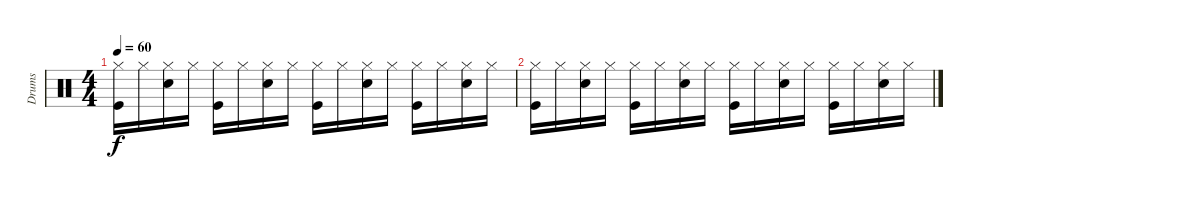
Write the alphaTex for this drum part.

\track ("Drums" "Drums") {instrument percussion}
\staff {score}
\articulation defaults
\ts (4 4)
\tempo 60
\clef neutral
\ks c
("Kick (hit)" "Hi-Hat (closed)").16{dy f} "Hi-Hat (closed)".16 ("Electric Snare (hit)" "Hi-Hat (closed)").16 "Hi-Hat (closed)".16 ("Kick (hit)" "Hi-Hat (closed)").16 "Hi-Hat (closed)".16 ("Electric Snare (hit)" "Hi-Hat (closed)").16 "Hi-Hat (closed)".16 ("Kick (hit)" "Hi-Hat (closed)").16 "Hi-Hat (closed)".16 ("Electric Snare (hit)" "Hi-Hat (closed)").16 "Hi-Hat (closed)".16 ("Kick (hit)" "Hi-Hat (closed)").16 "Hi-Hat (closed)".16 ("Electric Snare (hit)" "Hi-Hat (closed)").16 "Hi-Hat (closed)".16 |
("Kick (hit)" "Hi-Hat (closed)").16 "Hi-Hat (closed)".16 ("Electric Snare (hit)" "Hi-Hat (closed)").16 "Hi-Hat (closed)".16 ("Kick (hit)" "Hi-Hat (closed)").16 "Hi-Hat (closed)".16 ("Electric Snare (hit)" "Hi-Hat (closed)").16 "Hi-Hat (closed)".16 ("Kick (hit)" "Hi-Hat (closed)").16 "Hi-Hat (closed)".16 ("Electric Snare (hit)" "Hi-Hat (closed)").16 "Hi-Hat (closed)".16 ("Kick (hit)" "Hi-Hat (closed)").16 "Hi-Hat (closed)".16 ("Electric Snare (hit)" "Hi-Hat (closed)").16 "Hi-Hat (closed)".16
